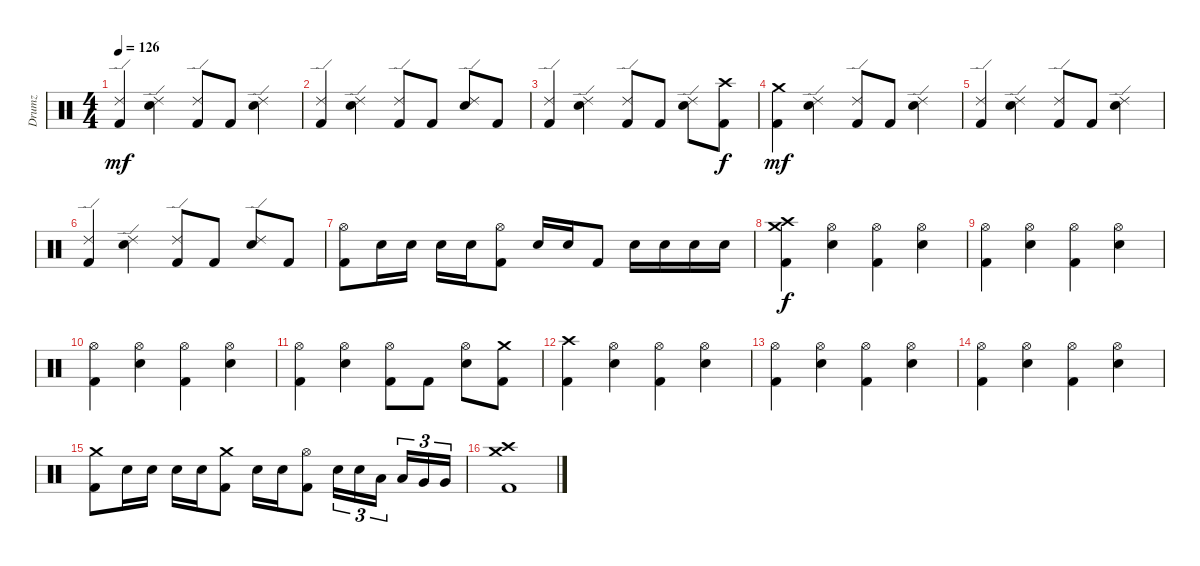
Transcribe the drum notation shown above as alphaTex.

\track ("Drumz" "Drumz") {instrument percussion}
\staff {score}
\articulation defaults
\ts (4 4)
\tempo 126
\clef neutral
\ks c
("Ride (edge) 2" "Kick (hit) 2").4{dy mf} ("Ride (edge) 2" "Snare (hit) 2").4 ("Ride (edge) 2" "Kick (hit) 2").8 "Kick (hit) 2".8 ("Ride (edge) 2" "Snare (hit) 2").4 |
("Ride (edge) 2" "Kick (hit) 2").4 ("Ride (edge) 2" "Snare (hit) 2").4 ("Ride (edge) 2" "Kick (hit) 2").8 "Kick (hit) 2".8 ("Ride (edge) 2" "Snare (hit) 2").8 "Kick (hit) 2".8 |
("Ride (edge) 2" "Kick (hit) 2").4 ("Ride (edge) 2" "Snare (hit) 2").4 ("Ride (edge) 2" "Kick (hit) 2").8 "Kick (hit) 2".8 ("Ride (edge) 2" "Snare (hit) 2").8 ("Crash high (hit)" "Kick (hit) 2").8{dy f} |
("Crash medium (hit)" "Kick (hit) 2").4{dy mf} ("Ride (edge) 2" "Snare (hit) 2").4 ("Ride (edge) 2" "Kick (hit) 2").8 "Kick (hit) 2".8 ("Ride (edge) 2" "Snare (hit) 2").4 |
("Ride (edge) 2" "Kick (hit) 2").4 ("Ride (edge) 2" "Snare (hit) 2").4 ("Ride (edge) 2" "Kick (hit) 2").8 "Kick (hit) 2".8 ("Ride (edge) 2" "Snare (hit) 2").4 |
("Ride (edge) 2" "Kick (hit) 2").4 ("Ride (edge) 2" "Snare (hit) 2").4 ("Ride (edge) 2" "Kick (hit) 2").8 "Kick (hit) 2".8 ("Ride (edge) 2" "Snare (hit) 2").8 "Kick (hit) 2".8 |
("Hi-Hat (open)" "Kick (hit) 2").8 "Snare (hit) 2".16 "Snare (hit) 2".16 "Snare (hit) 2".16 "Snare (hit) 2".16 ("Hi-Hat (open)" "Kick (hit) 2").8 "Snare (hit) 2".16 "Snare (hit) 2".16 "Kick (hit) 2".8 "Snare (hit) 2".16 "Snare (hit) 2".16 "Snare (hit) 2".16 "Snare (hit) 2".16 |
("Crash medium (hit)" "Crash high (hit)" "Kick (hit) 2").4{dy f} ("Hi-Hat (open)" "Snare (hit) 2").4 ("Hi-Hat (open)" "Kick (hit) 2").4 ("Hi-Hat (open)" "Snare (hit) 2").4 |
("Hi-Hat (open)" "Kick (hit) 2").4 ("Hi-Hat (open)" "Snare (hit) 2").4 ("Hi-Hat (open)" "Kick (hit) 2").4 ("Hi-Hat (open)" "Snare (hit) 2").4 |
("Hi-Hat (open)" "Kick (hit) 2").4 ("Hi-Hat (open)" "Snare (hit) 2").4 ("Hi-Hat (open)" "Kick (hit) 2").4 ("Hi-Hat (open)" "Snare (hit) 2").4 |
("Hi-Hat (open)" "Kick (hit) 2").4 ("Hi-Hat (open)" "Snare (hit) 2").4 ("Hi-Hat (open)" "Kick (hit) 2").8 "Kick (hit) 2".8 ("Hi-Hat (open)" "Snare (hit) 2").8 ("Crash medium (hit)" "Kick (hit) 2").8 |
("Crash high (hit)" "Kick (hit) 2").4 ("Hi-Hat (open)" "Snare (hit) 2").4 ("Hi-Hat (open)" "Kick (hit) 2").4 ("Hi-Hat (open)" "Snare (hit) 2").4 |
("Hi-Hat (open)" "Kick (hit) 2").4 ("Hi-Hat (open)" "Snare (hit) 2").4 ("Hi-Hat (open)" "Kick (hit) 2").4 ("Hi-Hat (open)" "Snare (hit) 2").4 |
("Hi-Hat (open)" "Kick (hit) 2").4 ("Hi-Hat (open)" "Snare (hit) 2").4 ("Hi-Hat (open)" "Kick (hit) 2").4 ("Hi-Hat (open)" "Snare (hit) 2").4 |
("Crash medium (hit)" "Kick (hit) 2").8 "Snare (hit) 2".16 "Snare (hit) 2".16 "Snare (hit) 2".16 "Snare (hit) 2".16 ("Crash medium (hit)" "Kick (hit) 2").8 "Snare (hit) 2".16 "Snare (hit) 2".16 ("Hi-Hat (open)" "Kick (hit) 2").8 "Snare (hit) 2".16{tu (3 2)} "Snare (hit) 2".16{tu (3 2)} "Low Tom (hit)".16{tu (3 2) beam splitsecondary} "Low Tom (hit)".16{tu (3 2)} "Very Low Tom (hit)".16{tu (3 2)} "Very Low Tom (hit)".16{tu (3 2)} |
("Crash high (hit)" "Crash medium (hit)" "Kick (hit) 2").1
